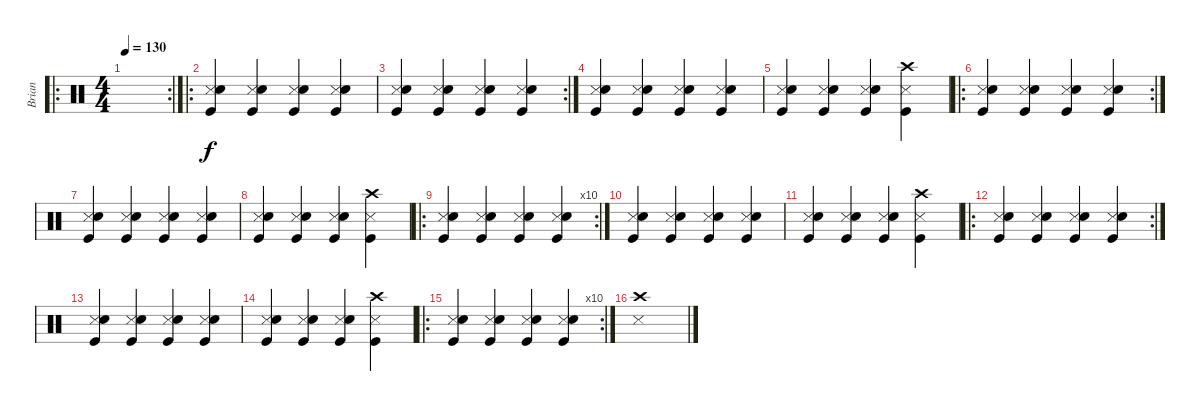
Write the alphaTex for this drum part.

\track ("Brian" "Brian") {instrument percussion}
\staff {score}
\articulation defaults
\ro
\rc 2
\ts (4 4)
\tempo 130
\clef neutral
\ks c
|
\ro
("Kick (hit)" "Snare (side stick) 3" "Electric Snare (hit)").4 ("Kick (hit)" "Snare (side stick) 3" "Electric Snare (hit)").4 ("Kick (hit)" "Snare (side stick) 3" "Electric Snare (hit)").4 ("Kick (hit)" "Snare (side stick) 3" "Electric Snare (hit)").4 |
\rc 2
("Kick (hit)" "Snare (side stick) 3" "Electric Snare (hit)").4 ("Kick (hit)" "Snare (side stick) 3" "Electric Snare (hit)").4 ("Kick (hit)" "Snare (side stick) 3" "Electric Snare (hit)").4 ("Kick (hit)" "Snare (side stick) 3" "Electric Snare (hit)").4 |
("Kick (hit)" "Snare (side stick) 3" "Electric Snare (hit)").4 ("Kick (hit)" "Snare (side stick) 3" "Electric Snare (hit)").4 ("Kick (hit)" "Snare (side stick) 3" "Electric Snare (hit)").4 ("Kick (hit)" "Snare (side stick) 3" "Electric Snare (hit)").4 |
("Kick (hit)" "Snare (side stick) 3" "Electric Snare (hit)").4 ("Kick (hit)" "Snare (side stick) 3" "Electric Snare (hit)").4 ("Kick (hit)" "Snare (side stick) 3" "Electric Snare (hit)").4 ("Kick (hit)" "Snare (side stick) 3" "Crash high (hit)").4 |
\ro
\rc 2
("Kick (hit)" "Snare (side stick) 3" "Electric Snare (hit)").4 ("Kick (hit)" "Snare (side stick) 3" "Electric Snare (hit)").4 ("Kick (hit)" "Snare (side stick) 3" "Electric Snare (hit)").4 ("Kick (hit)" "Snare (side stick) 3" "Electric Snare (hit)").4 |
("Kick (hit)" "Snare (side stick) 3" "Electric Snare (hit)").4 ("Kick (hit)" "Snare (side stick) 3" "Electric Snare (hit)").4 ("Kick (hit)" "Snare (side stick) 3" "Electric Snare (hit)").4 ("Kick (hit)" "Snare (side stick) 3" "Electric Snare (hit)").4 |
("Kick (hit)" "Snare (side stick) 3" "Electric Snare (hit)").4 ("Kick (hit)" "Snare (side stick) 3" "Electric Snare (hit)").4 ("Kick (hit)" "Snare (side stick) 3" "Electric Snare (hit)").4 ("Kick (hit)" "Snare (side stick) 3" "Crash high (hit)").4 |
\ro
\rc 10
("Kick (hit)" "Snare (side stick) 3" "Electric Snare (hit)").4 ("Kick (hit)" "Snare (side stick) 3" "Electric Snare (hit)").4 ("Kick (hit)" "Snare (side stick) 3" "Electric Snare (hit)").4 ("Kick (hit)" "Snare (side stick) 3" "Electric Snare (hit)").4 |
("Kick (hit)" "Snare (side stick) 3" "Electric Snare (hit)").4 ("Kick (hit)" "Snare (side stick) 3" "Electric Snare (hit)").4 ("Kick (hit)" "Snare (side stick) 3" "Electric Snare (hit)").4 ("Kick (hit)" "Snare (side stick) 3" "Electric Snare (hit)").4 |
("Kick (hit)" "Snare (side stick) 3" "Electric Snare (hit)").4 ("Kick (hit)" "Snare (side stick) 3" "Electric Snare (hit)").4 ("Kick (hit)" "Snare (side stick) 3" "Electric Snare (hit)").4 ("Kick (hit)" "Snare (side stick) 3" "Crash high (hit)").4 |
\ro
\rc 2
("Kick (hit)" "Snare (side stick) 3" "Electric Snare (hit)").4 ("Kick (hit)" "Snare (side stick) 3" "Electric Snare (hit)").4 ("Kick (hit)" "Snare (side stick) 3" "Electric Snare (hit)").4 ("Kick (hit)" "Snare (side stick) 3" "Electric Snare (hit)").4 |
("Kick (hit)" "Snare (side stick) 3" "Electric Snare (hit)").4 ("Kick (hit)" "Snare (side stick) 3" "Electric Snare (hit)").4 ("Kick (hit)" "Snare (side stick) 3" "Electric Snare (hit)").4 ("Kick (hit)" "Snare (side stick) 3" "Electric Snare (hit)").4 |
("Kick (hit)" "Snare (side stick) 3" "Electric Snare (hit)").4 ("Kick (hit)" "Snare (side stick) 3" "Electric Snare (hit)").4 ("Kick (hit)" "Snare (side stick) 3" "Electric Snare (hit)").4 ("Kick (hit)" "Snare (side stick) 3" "Crash high (hit)").4 |
\ro
\rc 10
("Kick (hit)" "Snare (side stick) 3" "Electric Snare (hit)").4 ("Kick (hit)" "Snare (side stick) 3" "Electric Snare (hit)").4 ("Kick (hit)" "Snare (side stick) 3" "Electric Snare (hit)").4 ("Kick (hit)" "Snare (side stick) 3" "Electric Snare (hit)").4 |
("Snare (side stick) 3" "Crash high (hit)").1
